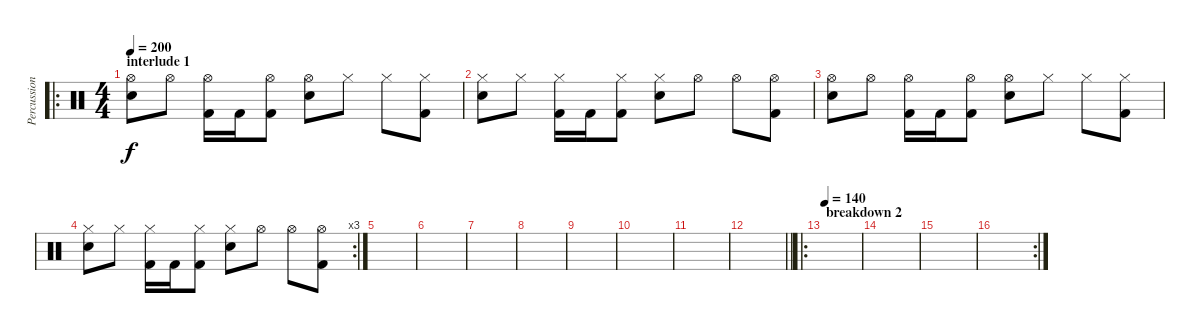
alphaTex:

\track ("Percussion" "Percussion") {instrument percussion}
\staff {score}
\articulation defaults
\ro
\ts (4 4)
\section ("" "interlude 1")
\tempo 200
\clef neutral
\ks c
("Hi-Hat (open)" "Snare (hit) 2").8{dy f} "Hi-Hat (open)".8 ("Hi-Hat (open)" "Kick (hit) 2").16 "Kick (hit) 2".16 ("Hi-Hat (open)" "Kick (hit) 2").8 ("Hi-Hat (open)" "Snare (hit) 2").8 "Hi-Hat (closed)".8 "Hi-Hat (closed)".8 ("Hi-Hat (closed)" "Kick (hit) 2").8 |
("Hi-Hat (closed)" "Snare (hit) 2").8 "Hi-Hat (closed)".8 ("Hi-Hat (closed)" "Kick (hit) 2").16 "Kick (hit) 2".16 ("Hi-Hat (closed)" "Kick (hit) 2").8 ("Hi-Hat (closed)" "Snare (hit) 2").8 "Hi-Hat (open)".8 "Hi-Hat (open)".8 ("Hi-Hat (open)" "Kick (hit) 2").8 |
("Hi-Hat (open)" "Snare (hit) 2").8 "Hi-Hat (open)".8 ("Hi-Hat (open)" "Kick (hit) 2").16 "Kick (hit) 2".16 ("Hi-Hat (open)" "Kick (hit) 2").8 ("Hi-Hat (open)" "Snare (hit) 2").8 "Hi-Hat (closed)".8 "Hi-Hat (closed)".8 ("Hi-Hat (closed)" "Kick (hit) 2").8 |
\rc 3
("Hi-Hat (closed)" "Snare (hit) 2").8 "Hi-Hat (closed)".8 ("Hi-Hat (closed)" "Kick (hit) 2").16 "Kick (hit) 2".16 ("Hi-Hat (closed)" "Kick (hit) 2").8 ("Hi-Hat (closed)" "Snare (hit) 2").8 "Hi-Hat (open)".8 "Hi-Hat (open)".8 ("Hi-Hat (open)" "Kick (hit) 2").8 |
|
|
|
|
|
|
|
\barLineRight lightlight
|
\ro
\section ("" "breakdown 2")
\tempo 140
|
|
|
\rc 2
